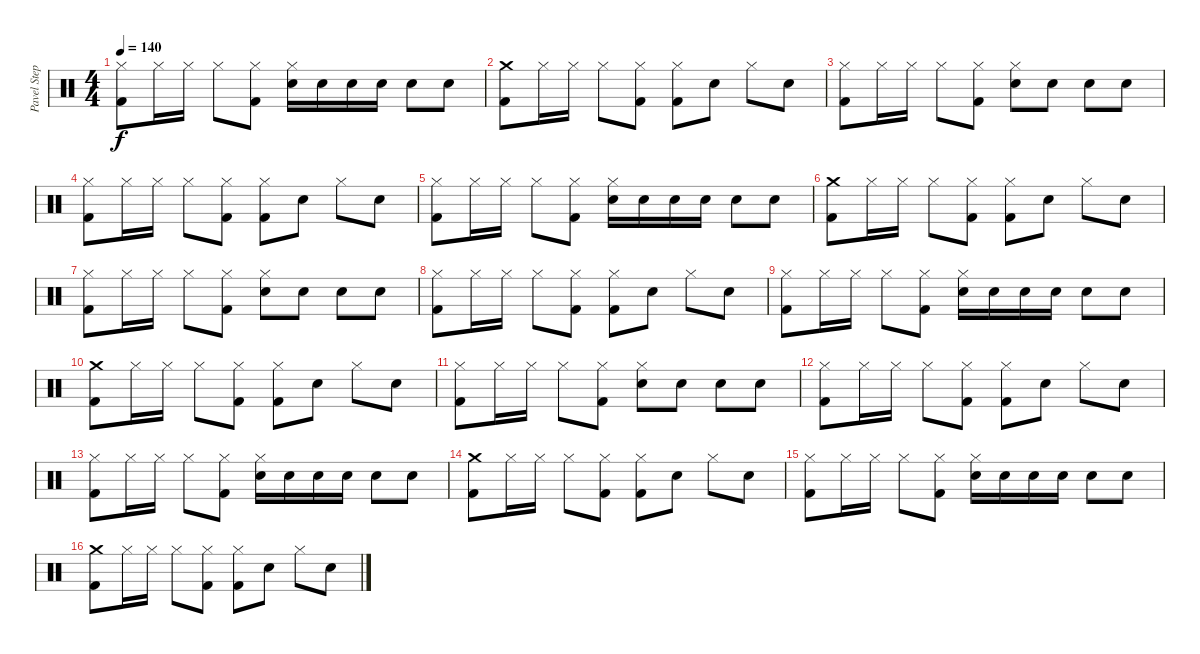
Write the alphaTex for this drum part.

\track ("Pavel Stepan" "Pavel Step") {instrument percussion}
\staff {score}
\articulation defaults
\ts (4 4)
\tempo 140
\clef neutral
\ks c
("Hi-Hat (closed)" "Kick (hit) 2").8{dy f} "Hi-Hat (closed)".16 "Hi-Hat (closed)".16 "Hi-Hat (closed)".8 ("Hi-Hat (closed)" "Kick (hit) 2").8 ("Hi-Hat (closed)" "Snare (hit) 2").16 "Snare (hit) 2".16 "Snare (hit) 2".16 "Snare (hit) 2".16 "Snare (hit) 2".8 "Snare (hit) 2".8 |
("Crash medium (hit)" "Kick (hit) 2").8 "Hi-Hat (closed)".16 "Hi-Hat (closed)".16 "Hi-Hat (closed)".8 ("Hi-Hat (closed)" "Kick (hit) 2").8 ("Hi-Hat (closed)" "Kick (hit) 2").8 "Snare (hit) 2".8 "Hi-Hat (closed)".8 "Snare (hit) 2".8 |
("Hi-Hat (closed)" "Kick (hit) 2").8 "Hi-Hat (closed)".16 "Hi-Hat (closed)".16 "Hi-Hat (closed)".8 ("Hi-Hat (closed)" "Kick (hit) 2").8 ("Hi-Hat (closed)" "Snare (hit) 2").8 "Snare (hit) 2".8 "Snare (hit) 2".8 "Snare (hit) 2".8 |
("Hi-Hat (closed)" "Kick (hit) 2").8 "Hi-Hat (closed)".16 "Hi-Hat (closed)".16 "Hi-Hat (closed)".8 ("Hi-Hat (closed)" "Kick (hit) 2").8 ("Hi-Hat (closed)" "Kick (hit) 2").8 "Snare (hit) 2".8 "Hi-Hat (closed)".8 "Snare (hit) 2".8 |
("Hi-Hat (closed)" "Kick (hit) 2").8 "Hi-Hat (closed)".16 "Hi-Hat (closed)".16 "Hi-Hat (closed)".8 ("Hi-Hat (closed)" "Kick (hit) 2").8 ("Hi-Hat (closed)" "Snare (hit) 2").16 "Snare (hit) 2".16 "Snare (hit) 2".16 "Snare (hit) 2".16 "Snare (hit) 2".8 "Snare (hit) 2".8 |
("Crash medium (hit)" "Kick (hit) 2").8 "Hi-Hat (closed)".16 "Hi-Hat (closed)".16 "Hi-Hat (closed)".8 ("Hi-Hat (closed)" "Kick (hit) 2").8 ("Hi-Hat (closed)" "Kick (hit) 2").8 "Snare (hit) 2".8 "Hi-Hat (closed)".8 "Snare (hit) 2".8 |
("Hi-Hat (closed)" "Kick (hit) 2").8 "Hi-Hat (closed)".16 "Hi-Hat (closed)".16 "Hi-Hat (closed)".8 ("Hi-Hat (closed)" "Kick (hit) 2").8 ("Hi-Hat (closed)" "Snare (hit) 2").8 "Snare (hit) 2".8 "Snare (hit) 2".8 "Snare (hit) 2".8 |
("Hi-Hat (closed)" "Kick (hit) 2").8 "Hi-Hat (closed)".16 "Hi-Hat (closed)".16 "Hi-Hat (closed)".8 ("Hi-Hat (closed)" "Kick (hit) 2").8 ("Hi-Hat (closed)" "Kick (hit) 2").8 "Snare (hit) 2".8 "Hi-Hat (closed)".8 "Snare (hit) 2".8 |
("Hi-Hat (closed)" "Kick (hit) 2").8 "Hi-Hat (closed)".16 "Hi-Hat (closed)".16 "Hi-Hat (closed)".8 ("Hi-Hat (closed)" "Kick (hit) 2").8 ("Hi-Hat (closed)" "Snare (hit) 2").16 "Snare (hit) 2".16 "Snare (hit) 2".16 "Snare (hit) 2".16 "Snare (hit) 2".8 "Snare (hit) 2".8 |
("Crash medium (hit)" "Kick (hit) 2").8 "Hi-Hat (closed)".16 "Hi-Hat (closed)".16 "Hi-Hat (closed)".8 ("Hi-Hat (closed)" "Kick (hit) 2").8 ("Hi-Hat (closed)" "Kick (hit) 2").8 "Snare (hit) 2".8 "Hi-Hat (closed)".8 "Snare (hit) 2".8 |
("Hi-Hat (closed)" "Kick (hit) 2").8 "Hi-Hat (closed)".16 "Hi-Hat (closed)".16 "Hi-Hat (closed)".8 ("Hi-Hat (closed)" "Kick (hit) 2").8 ("Hi-Hat (closed)" "Snare (hit) 2").8 "Snare (hit) 2".8 "Snare (hit) 2".8 "Snare (hit) 2".8 |
("Hi-Hat (closed)" "Kick (hit) 2").8 "Hi-Hat (closed)".16 "Hi-Hat (closed)".16 "Hi-Hat (closed)".8 ("Hi-Hat (closed)" "Kick (hit) 2").8 ("Hi-Hat (closed)" "Kick (hit) 2").8 "Snare (hit) 2".8 "Hi-Hat (closed)".8 "Snare (hit) 2".8 |
("Hi-Hat (closed)" "Kick (hit) 2").8 "Hi-Hat (closed)".16 "Hi-Hat (closed)".16 "Hi-Hat (closed)".8 ("Hi-Hat (closed)" "Kick (hit) 2").8 ("Hi-Hat (closed)" "Snare (hit) 2").16 "Snare (hit) 2".16 "Snare (hit) 2".16 "Snare (hit) 2".16 "Snare (hit) 2".8 "Snare (hit) 2".8 |
("Crash medium (hit)" "Kick (hit) 2").8 "Hi-Hat (closed)".16 "Hi-Hat (closed)".16 "Hi-Hat (closed)".8 ("Hi-Hat (closed)" "Kick (hit) 2").8 ("Hi-Hat (closed)" "Kick (hit) 2").8 "Snare (hit) 2".8 "Hi-Hat (closed)".8 "Snare (hit) 2".8 |
("Hi-Hat (closed)" "Kick (hit) 2").8 "Hi-Hat (closed)".16 "Hi-Hat (closed)".16 "Hi-Hat (closed)".8 ("Hi-Hat (closed)" "Kick (hit) 2").8 ("Hi-Hat (closed)" "Snare (hit) 2").16 "Snare (hit) 2".16 "Snare (hit) 2".16 "Snare (hit) 2".16 "Snare (hit) 2".8 "Snare (hit) 2".8 |
("Crash medium (hit)" "Kick (hit) 2").8 "Hi-Hat (closed)".16 "Hi-Hat (closed)".16 "Hi-Hat (closed)".8 ("Hi-Hat (closed)" "Kick (hit) 2").8 ("Hi-Hat (closed)" "Kick (hit) 2").8 "Snare (hit) 2".8 "Hi-Hat (closed)".8 "Snare (hit) 2".8
